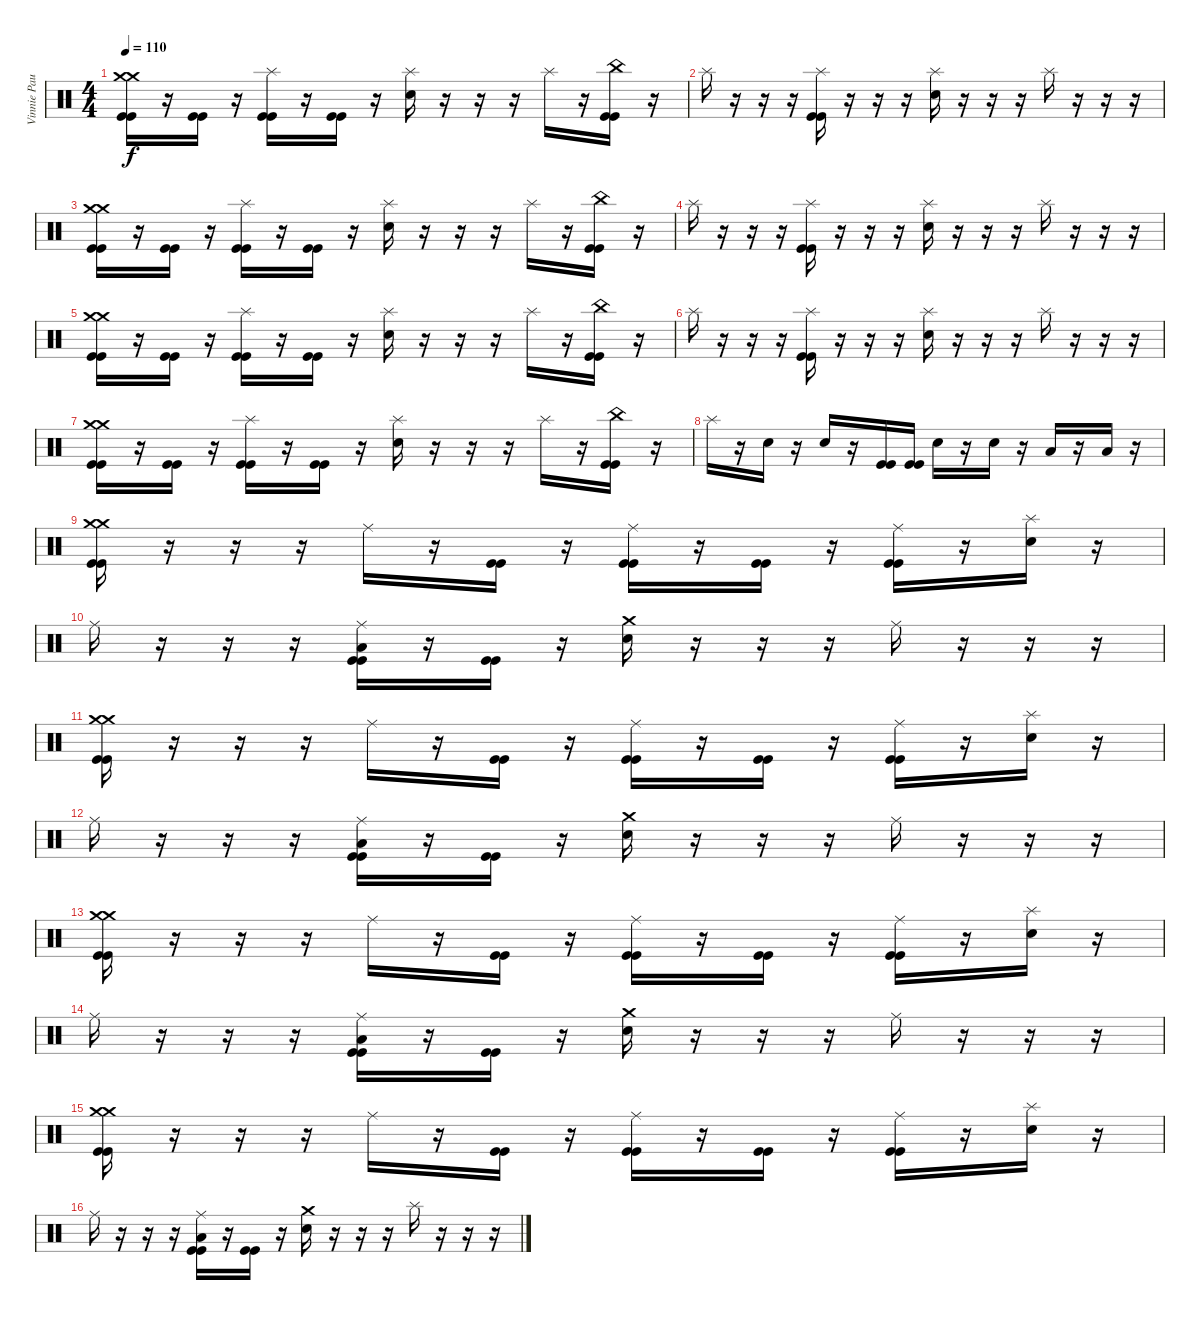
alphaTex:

\track ("Vinnie Paul " "Vinnie Pau") {instrument percussion}
\staff {score}
\articulation defaults
\ts (4 4)
\tempo 110
\clef neutral
\ks c
("Crash medium (hit)" "Crash medium (hit)" "Kick (hit)" "Kick (hit)").16{dy f} r.16 ("Kick (hit)" "Kick (hit)").16 r.16 ("Splash (hit)" "Kick (hit)" "Kick (hit)").16 r.16 ("Kick (hit)" "Kick (hit)").16 r.16 ("Splash (hit)" "Snare (hit) 2").16 r.16 r.16 r.16 "Splash (hit)".16 r.16 ("China (hit)" "Kick (hit)" "Kick (hit)").16 r.16 |
"Splash (hit)".16 r.16 r.16 r.16 ("Splash (hit)" "Kick (hit)" "Kick (hit)").16 r.16 r.16 r.16 ("Splash (hit)" "Snare (hit) 2").16 r.16 r.16 r.16 "Splash (hit)".16 r.16 r.16 r.16 |
("Crash medium (hit)" "Crash medium (hit)" "Kick (hit)" "Kick (hit)").16 r.16 ("Kick (hit)" "Kick (hit)").16 r.16 ("Splash (hit)" "Kick (hit)" "Kick (hit)").16 r.16 ("Kick (hit)" "Kick (hit)").16 r.16 ("Splash (hit)" "Snare (hit) 2").16 r.16 r.16 r.16 "Splash (hit)".16 r.16 ("China (hit)" "Kick (hit)" "Kick (hit)").16 r.16 |
"Splash (hit)".16 r.16 r.16 r.16 ("Splash (hit)" "Kick (hit)" "Kick (hit)").16 r.16 r.16 r.16 ("Splash (hit)" "Snare (hit) 2").16 r.16 r.16 r.16 "Splash (hit)".16 r.16 r.16 r.16 |
("Crash medium (hit)" "Crash medium (hit)" "Kick (hit)" "Kick (hit)").16 r.16 ("Kick (hit)" "Kick (hit)").16 r.16 ("Splash (hit)" "Kick (hit)" "Kick (hit)").16 r.16 ("Kick (hit)" "Kick (hit)").16 r.16 ("Splash (hit)" "Snare (hit) 2").16 r.16 r.16 r.16 "Splash (hit)".16 r.16 ("China (hit)" "Kick (hit)" "Kick (hit)").16 r.16 |
"Splash (hit)".16 r.16 r.16 r.16 ("Splash (hit)" "Kick (hit)" "Kick (hit)").16 r.16 r.16 r.16 ("Splash (hit)" "Snare (hit) 2").16 r.16 r.16 r.16 "Splash (hit)".16 r.16 r.16 r.16 |
("Crash medium (hit)" "Crash medium (hit)" "Kick (hit)" "Kick (hit)").16 r.16 ("Kick (hit)" "Kick (hit)").16 r.16 ("Splash (hit)" "Kick (hit)" "Kick (hit)").16 r.16 ("Kick (hit)" "Kick (hit)").16 r.16 ("Splash (hit)" "Snare (hit) 2").16 r.16 r.16 r.16 "Splash (hit)".16 r.16 ("China (hit)" "Kick (hit)" "Kick (hit)").16 r.16 |
"Splash (hit)".16 r.16 "Snare (hit) 2".16 r.16 "Snare (hit) 2".16 r.16 ("Kick (hit)" "Kick (hit)").16 ("Kick (hit)" "Kick (hit)").16 "Snare (hit) 2".16 r.16 "Snare (hit) 2".16 r.16 "Low Tom (hit)".16 r.16 "Low Tom (hit)".16 r.16 |
("Crash medium (hit)" "Crash medium (hit)" "Kick (hit)" "Kick (hit)").16 r.16 r.16 r.16 "Ride (middle)".16 r.16 ("Kick (hit)" "Kick (hit)").16 r.16 ("Ride (middle)" "Kick (hit)" "Kick (hit)").16 r.16 ("Kick (hit)" "Kick (hit)").16 r.16 ("Ride (middle)" "Kick (hit)" "Kick (hit)").16 r.16 ("Splash (hit)" "Snare (hit) 2").16 r.16 |
"Ride (middle)".16 r.16 r.16 r.16 ("Ride (middle)" "Low Tom (hit)" "Kick (hit)" "Kick (hit)").16 r.16 ("Kick (hit)" "Kick (hit)").16 r.16 ("Crash medium (hit)" "Snare (hit) 2").16 r.16 r.16 r.16 "Ride (middle)".16 r.16 r.16 r.16 |
("Crash medium (hit)" "Crash medium (hit)" "Kick (hit)" "Kick (hit)").16 r.16 r.16 r.16 "Ride (middle)".16 r.16 ("Kick (hit)" "Kick (hit)").16 r.16 ("Ride (middle)" "Kick (hit)" "Kick (hit)").16 r.16 ("Kick (hit)" "Kick (hit)").16 r.16 ("Ride (middle)" "Kick (hit)" "Kick (hit)").16 r.16 ("Splash (hit)" "Snare (hit) 2").16 r.16 |
"Ride (middle)".16 r.16 r.16 r.16 ("Ride (middle)" "Low Tom (hit)" "Kick (hit)" "Kick (hit)").16 r.16 ("Kick (hit)" "Kick (hit)").16 r.16 ("Crash medium (hit)" "Snare (hit) 2").16 r.16 r.16 r.16 "Ride (middle)".16 r.16 r.16 r.16 |
("Crash medium (hit)" "Crash medium (hit)" "Kick (hit)" "Kick (hit)").16 r.16 r.16 r.16 "Ride (middle)".16 r.16 ("Kick (hit)" "Kick (hit)").16 r.16 ("Ride (middle)" "Kick (hit)" "Kick (hit)").16 r.16 ("Kick (hit)" "Kick (hit)").16 r.16 ("Ride (middle)" "Kick (hit)" "Kick (hit)").16 r.16 ("Splash (hit)" "Snare (hit) 2").16 r.16 |
"Ride (middle)".16 r.16 r.16 r.16 ("Ride (middle)" "Low Tom (hit)" "Kick (hit)" "Kick (hit)").16 r.16 ("Kick (hit)" "Kick (hit)").16 r.16 ("Crash medium (hit)" "Snare (hit) 2").16 r.16 r.16 r.16 "Ride (middle)".16 r.16 r.16 r.16 |
("Crash medium (hit)" "Crash medium (hit)" "Kick (hit)" "Kick (hit)").16 r.16 r.16 r.16 "Ride (middle)".16 r.16 ("Kick (hit)" "Kick (hit)").16 r.16 ("Ride (middle)" "Kick (hit)" "Kick (hit)").16 r.16 ("Kick (hit)" "Kick (hit)").16 r.16 ("Ride (middle)" "Kick (hit)" "Kick (hit)").16 r.16 ("Splash (hit)" "Snare (hit) 2").16 r.16 |
"Ride (middle)".16 r.16 r.16 r.16 ("Ride (middle)" "Low Tom (hit)" "Kick (hit)" "Kick (hit)").16 r.16 ("Kick (hit)" "Kick (hit)").16 r.16 ("Crash medium (hit)" "Snare (hit) 2").16 r.16 r.16 r.16 "Splash (hit)".16 r.16 r.16 r.16
